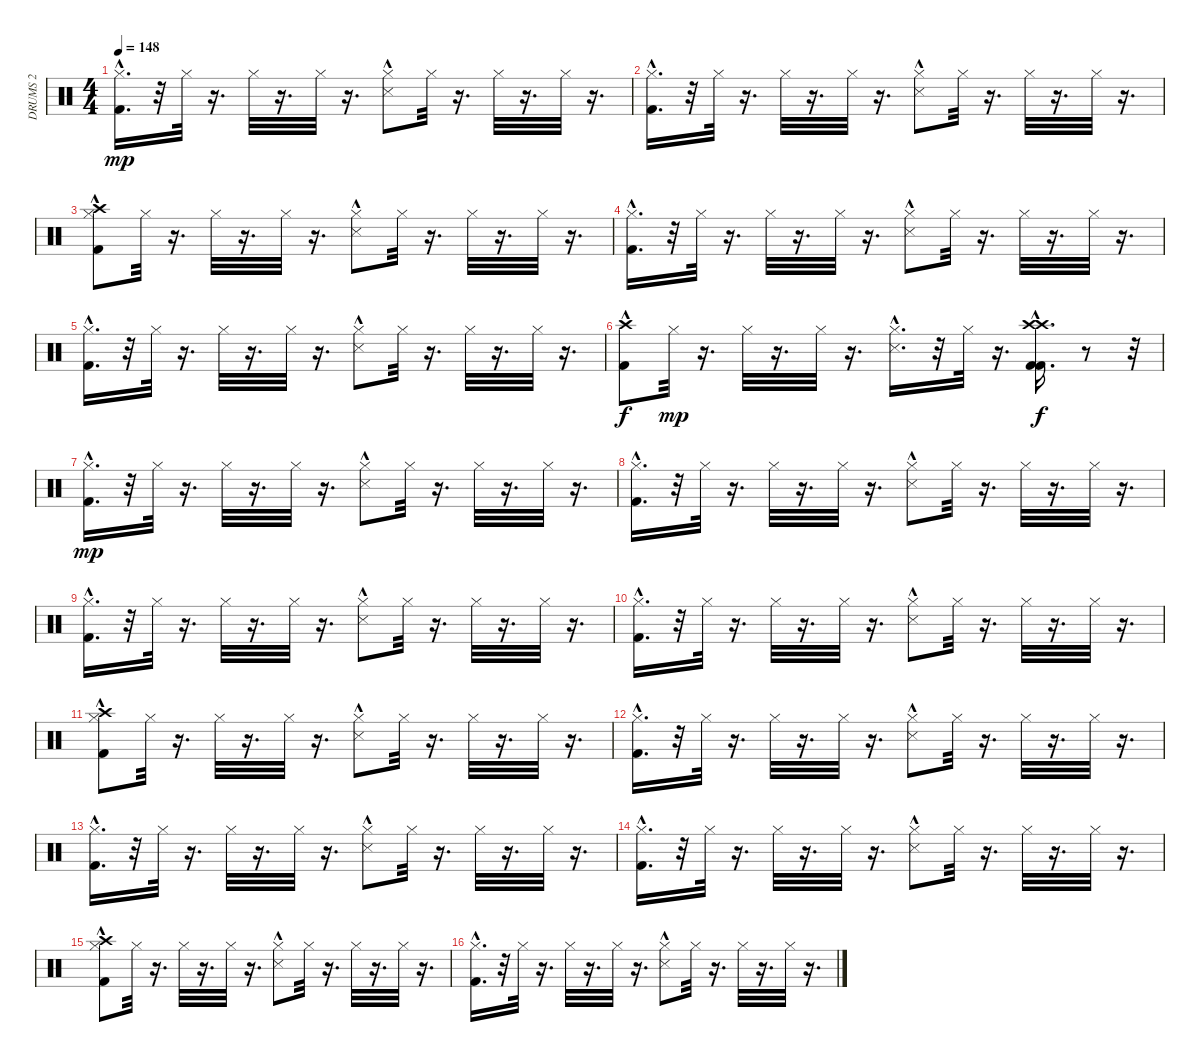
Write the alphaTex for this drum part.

\track ("DRUMS 2" "DRUMS 2") {instrument percussion}
\staff {score}
\articulation defaults
\ts (4 4)
\tempo 148
\clef neutral
\ks c
("Kick (hit) 2"{hac} "Hi-Hat (closed)").16{d dy mp} r.32 "Hi-Hat (closed)".32 r.16{d} "Hi-Hat (closed)".32 r.16{d} "Hi-Hat (closed)".32 r.16{d} ("Snare (side stick) 3"{hac} "Hi-Hat (closed)").8 "Hi-Hat (closed)".32 r.16{d} "Hi-Hat (closed)".32 r.16{d} "Hi-Hat (closed)".32 r.16{d} |
("Kick (hit) 2"{hac} "Hi-Hat (closed)").16{d} r.32 "Hi-Hat (closed)".32 r.16{d} "Hi-Hat (closed)".32 r.16{d} "Hi-Hat (closed)".32 r.16{d} ("Snare (side stick) 3"{hac} "Hi-Hat (closed)").8 "Hi-Hat (closed)".32 r.16{d} "Hi-Hat (closed)".32 r.16{d} "Hi-Hat (closed)".32 r.16{d} |
("Kick (hit) 2"{hac} "Hi-Hat (closed)" "Crash high (hit)"{hac}).8 "Hi-Hat (closed)".32 r.16{d} "Hi-Hat (closed)".32 r.16{d} "Hi-Hat (closed)".32 r.16{d} ("Snare (side stick) 3"{hac} "Hi-Hat (closed)").8 "Hi-Hat (closed)".32 r.16{d} "Hi-Hat (closed)".32 r.16{d} "Hi-Hat (closed)".32 r.16{d} |
("Kick (hit) 2"{hac} "Hi-Hat (closed)").16{d} r.32 "Hi-Hat (closed)".32 r.16{d} "Hi-Hat (closed)".32 r.16{d} "Hi-Hat (closed)".32 r.16{d} ("Snare (side stick) 3"{hac} "Hi-Hat (closed)").8 "Hi-Hat (closed)".32 r.16{d} "Hi-Hat (closed)".32 r.16{d} "Hi-Hat (closed)".32 r.16{d} |
("Kick (hit) 2"{hac} "Hi-Hat (closed)").16{d} r.32 "Hi-Hat (closed)".32 r.16{d} "Hi-Hat (closed)".32 r.16{d} "Hi-Hat (closed)".32 r.16{d} ("Snare (side stick) 3"{hac} "Hi-Hat (closed)").8 "Hi-Hat (closed)".32 r.16{d} "Hi-Hat (closed)".32 r.16{d} "Hi-Hat (closed)".32 r.16{d} |
("Kick (hit) 2"{hac} "Crash high (hit)"{hac}).8{dy f} "Hi-Hat (closed)".32{dy mp} r.16{d} "Hi-Hat (closed)".32 r.16{d} "Hi-Hat (closed)".32 r.16{d} ("Snare (side stick) 3"{hac} "Hi-Hat (closed)").16{d} r.32 "Hi-Hat (closed)".32 r.16{d} ("Kick (hit) 2"{hac} "Kick (hit) 2"{hac} "Crash high (hit)"{hac} "Crash high (hit)"{hac}).16{d dy f} r.8 r.32 |
("Kick (hit) 2"{hac} "Hi-Hat (closed)").16{d dy mp} r.32 "Hi-Hat (closed)".32 r.16{d} "Hi-Hat (closed)".32 r.16{d} "Hi-Hat (closed)".32 r.16{d} ("Snare (side stick) 3"{hac} "Hi-Hat (closed)").8 "Hi-Hat (closed)".32 r.16{d} "Hi-Hat (closed)".32 r.16{d} "Hi-Hat (closed)".32 r.16{d} |
("Kick (hit) 2"{hac} "Hi-Hat (closed)").16{d} r.32 "Hi-Hat (closed)".32 r.16{d} "Hi-Hat (closed)".32 r.16{d} "Hi-Hat (closed)".32 r.16{d} ("Snare (side stick) 3"{hac} "Hi-Hat (closed)").8 "Hi-Hat (closed)".32 r.16{d} "Hi-Hat (closed)".32 r.16{d} "Hi-Hat (closed)".32 r.16{d} |
("Kick (hit) 2"{hac} "Hi-Hat (closed)").16{d} r.32 "Hi-Hat (closed)".32 r.16{d} "Hi-Hat (closed)".32 r.16{d} "Hi-Hat (closed)".32 r.16{d} ("Snare (side stick) 3"{hac} "Hi-Hat (closed)").8 "Hi-Hat (closed)".32 r.16{d} "Hi-Hat (closed)".32 r.16{d} "Hi-Hat (closed)".32 r.16{d} |
("Kick (hit) 2"{hac} "Hi-Hat (closed)").16{d} r.32 "Hi-Hat (closed)".32 r.16{d} "Hi-Hat (closed)".32 r.16{d} "Hi-Hat (closed)".32 r.16{d} ("Snare (side stick) 3"{hac} "Hi-Hat (closed)").8 "Hi-Hat (closed)".32 r.16{d} "Hi-Hat (closed)".32 r.16{d} "Hi-Hat (closed)".32 r.16{d} |
("Kick (hit) 2"{hac} "Hi-Hat (closed)" "Crash high (hit)"{hac}).8 "Hi-Hat (closed)".32 r.16{d} "Hi-Hat (closed)".32 r.16{d} "Hi-Hat (closed)".32 r.16{d} ("Snare (side stick) 3"{hac} "Hi-Hat (closed)").8 "Hi-Hat (closed)".32 r.16{d} "Hi-Hat (closed)".32 r.16{d} "Hi-Hat (closed)".32 r.16{d} |
("Kick (hit) 2"{hac} "Hi-Hat (closed)").16{d} r.32 "Hi-Hat (closed)".32 r.16{d} "Hi-Hat (closed)".32 r.16{d} "Hi-Hat (closed)".32 r.16{d} ("Snare (side stick) 3"{hac} "Hi-Hat (closed)").8 "Hi-Hat (closed)".32 r.16{d} "Hi-Hat (closed)".32 r.16{d} "Hi-Hat (closed)".32 r.16{d} |
("Kick (hit) 2"{hac} "Hi-Hat (closed)").16{d} r.32 "Hi-Hat (closed)".32 r.16{d} "Hi-Hat (closed)".32 r.16{d} "Hi-Hat (closed)".32 r.16{d} ("Snare (side stick) 3"{hac} "Hi-Hat (closed)").8 "Hi-Hat (closed)".32 r.16{d} "Hi-Hat (closed)".32 r.16{d} "Hi-Hat (closed)".32 r.16{d} |
("Kick (hit) 2"{hac} "Hi-Hat (closed)").16{d} r.32 "Hi-Hat (closed)".32 r.16{d} "Hi-Hat (closed)".32 r.16{d} "Hi-Hat (closed)".32 r.16{d} ("Snare (side stick) 3"{hac} "Hi-Hat (closed)").8 "Hi-Hat (closed)".32 r.16{d} "Hi-Hat (closed)".32 r.16{d} "Hi-Hat (closed)".32 r.16{d} |
("Kick (hit) 2"{hac} "Hi-Hat (closed)" "Crash high (hit)"{hac}).8 "Hi-Hat (closed)".32 r.16{d} "Hi-Hat (closed)".32 r.16{d} "Hi-Hat (closed)".32 r.16{d} ("Snare (side stick) 3"{hac} "Hi-Hat (closed)").8 "Hi-Hat (closed)".32 r.16{d} "Hi-Hat (closed)".32 r.16{d} "Hi-Hat (closed)".32 r.16{d} |
("Kick (hit) 2"{hac} "Hi-Hat (closed)").16{d} r.32 "Hi-Hat (closed)".32 r.16{d} "Hi-Hat (closed)".32 r.16{d} "Hi-Hat (closed)".32 r.16{d} ("Snare (side stick) 3"{hac} "Hi-Hat (closed)").8 "Hi-Hat (closed)".32 r.16{d} "Hi-Hat (closed)".32 r.16{d} "Hi-Hat (closed)".32 r.16{d}
